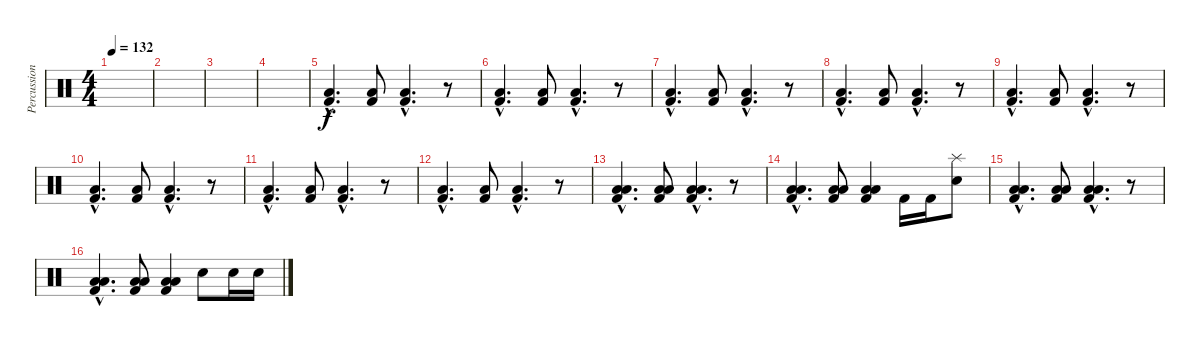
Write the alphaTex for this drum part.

\track ("Percussioni" "Percussion") {instrument percussion}
\staff {score}
\articulation defaults
\ts (4 4)
\tempo 132
\clef neutral
\ks c
|
|
|
|
("Low Floor Tom (hit)"{hac} "Kick (hit) 2"{hac}).4{d} ("Low Floor Tom (hit)" "Kick (hit) 2").8 ("Low Floor Tom (hit)"{hac} "Kick (hit) 2"{hac}).4{d} r.8 |
("Low Floor Tom (hit)"{hac} "Kick (hit) 2"{hac}).4{d} ("Low Floor Tom (hit)" "Kick (hit) 2").8 ("Low Floor Tom (hit)"{hac} "Kick (hit) 2"{hac}).4{d} r.8 |
("Low Floor Tom (hit)"{hac} "Kick (hit) 2"{hac}).4{d} ("Low Floor Tom (hit)" "Kick (hit) 2").8 ("Low Floor Tom (hit)"{hac} "Kick (hit) 2"{hac}).4{d} r.8 |
("Low Floor Tom (hit)"{hac} "Kick (hit) 2"{hac}).4{d} ("Low Floor Tom (hit)" "Kick (hit) 2").8 ("Low Floor Tom (hit)"{hac} "Kick (hit) 2"{hac}).4{d} r.8 |
("Low Floor Tom (hit)"{hac} "Kick (hit) 2"{hac}).4{d} ("Low Floor Tom (hit)" "Kick (hit) 2").8 ("Low Floor Tom (hit)"{hac} "Kick (hit) 2"{hac}).4{d} r.8 |
("Low Floor Tom (hit)"{hac} "Kick (hit) 2"{hac}).4{d} ("Low Floor Tom (hit)" "Kick (hit) 2").8 ("Low Floor Tom (hit)"{hac} "Kick (hit) 2"{hac}).4{d} r.8 |
("Low Floor Tom (hit)"{hac} "Kick (hit) 2"{hac}).4{d} ("Low Floor Tom (hit)" "Kick (hit) 2").8 ("Low Floor Tom (hit)"{hac} "Kick (hit) 2"{hac}).4{d} r.8 |
("Low Floor Tom (hit)"{hac} "Kick (hit) 2"{hac}).4{d} ("Low Floor Tom (hit)" "Kick (hit) 2").8 ("Low Floor Tom (hit)"{hac} "Kick (hit) 2"{hac}).4{d} r.8 |
("Low Floor Tom (hit)"{hac} "Low Floor Tom (hit)"{hac} "Kick (hit) 2"{hac}).4{d} ("Low Floor Tom (hit)" "Low Floor Tom (hit)" "Kick (hit) 2").8 ("Low Floor Tom (hit)"{hac} "Low Floor Tom (hit)"{hac} "Kick (hit) 2"{hac}).4{d} r.8 |
("Low Floor Tom (hit)"{hac} "Low Floor Tom (hit)"{hac} "Kick (hit) 2"{hac}).4{d} ("Low Floor Tom (hit)" "Low Floor Tom (hit)" "Kick (hit) 2").8 ("Low Floor Tom (hit)" "Low Floor Tom (hit)" "Kick (hit) 2").4 "Kick (hit) 2".16 "Kick (hit) 2".16 ("Splash (hit)" "Snare (hit) 2").8 |
("Low Floor Tom (hit)"{hac} "Low Floor Tom (hit)"{hac} "Kick (hit) 2"{hac}).4{d} ("Low Floor Tom (hit)" "Low Floor Tom (hit)" "Kick (hit) 2").8 ("Low Floor Tom (hit)"{hac} "Low Floor Tom (hit)"{hac} "Kick (hit) 2"{hac}).4{d} r.8 |
("Low Floor Tom (hit)"{hac} "Low Floor Tom (hit)"{hac} "Kick (hit) 2"{hac}).4{d} ("Low Floor Tom (hit)" "Low Floor Tom (hit)" "Kick (hit) 2").8 ("Low Floor Tom (hit)" "Low Floor Tom (hit)" "Kick (hit) 2").4 "Snare (hit) 2".8 "Snare (hit) 2".16 "Snare (hit) 2".16
